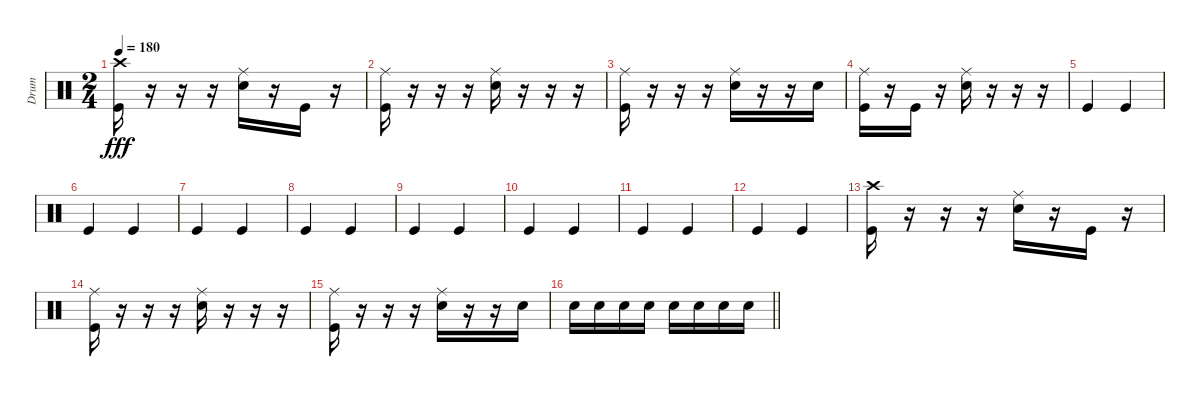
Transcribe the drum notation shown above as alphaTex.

\track ("Drum" "Drum") {instrument percussion}
\staff {score}
\articulation defaults
\ts (2 4)
\tempo 180
\clef neutral
\ks c
("Crash high (hit)" "Kick (hit)").16{dy fff} r.16 r.16 r.16 ("Ride (middle)" "Snare (hit) 2").16 r.16 "Kick (hit)".16 r.16 |
("Ride (middle)" "Kick (hit)").16 r.16 r.16 r.16 ("Ride (middle)" "Snare (hit) 2").16 r.16 r.16 r.16 |
("Ride (middle)" "Kick (hit)").16 r.16 r.16 r.16 ("Ride (middle)" "Snare (hit) 2").16 r.16 r.16 "Snare (hit)".16 |
("Ride (middle)" "Kick (hit)").16 r.16 "Kick (hit)".16 r.16 ("Ride (middle)" "Snare (hit) 2").16 r.16 r.16 r.16 |
"Kick (hit)".4 "Kick (hit)".4 |
"Kick (hit)".4 "Kick (hit)".4 |
"Kick (hit)".4 "Kick (hit)".4 |
"Kick (hit)".4 "Kick (hit)".4 |
"Kick (hit)".4 "Kick (hit)".4 |
"Kick (hit)".4 "Kick (hit)".4 |
"Kick (hit)".4 "Kick (hit)".4 |
"Kick (hit)".4 "Kick (hit)".4 |
("Crash high (hit)" "Kick (hit)").16 r.16 r.16 r.16 ("Ride (middle)" "Snare (hit) 2").16 r.16 "Kick (hit)".16 r.16 |
("Ride (middle)" "Kick (hit)").16 r.16 r.16 r.16 ("Ride (middle)" "Snare (hit) 2").16 r.16 r.16 r.16 |
("Ride (middle)" "Kick (hit)").16 r.16 r.16 r.16 ("Ride (middle)" "Snare (hit) 2").16 r.16 r.16 "Snare (hit)".16 |
\barLineRight lightlight "Snare (hit) 2".16 "Snare (hit) 2".16 "Snare (hit) 2".16 "Snare (hit) 2".16 "Snare (hit) 2".16 "Snare (hit) 2".16 "Snare (hit) 2".16 "Snare (hit) 2".16
